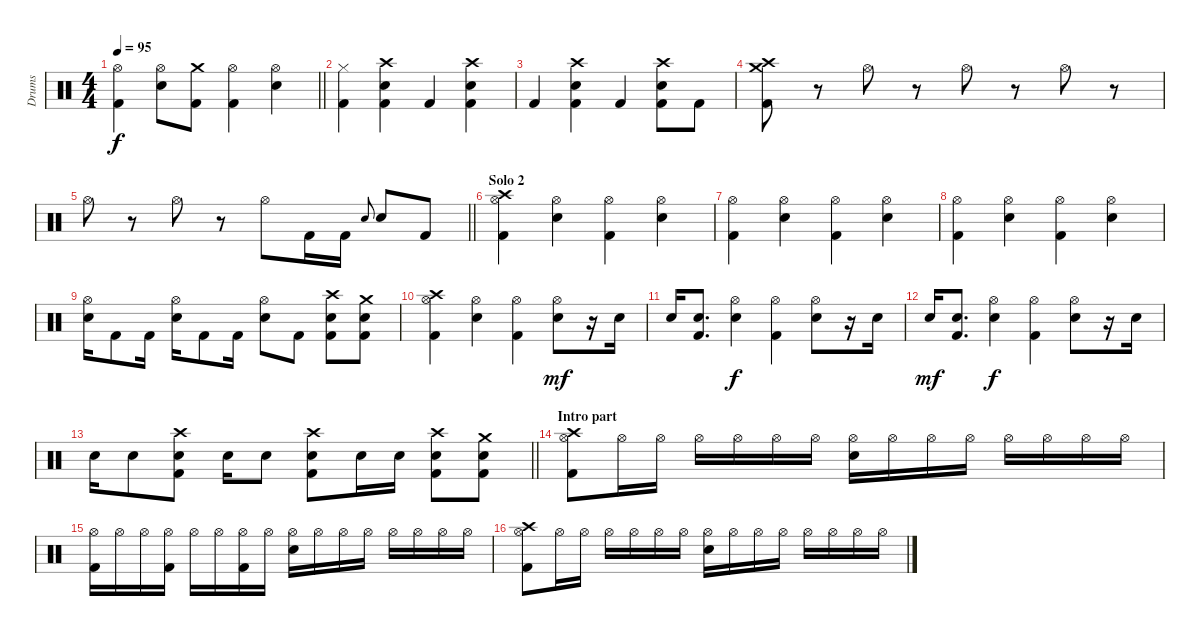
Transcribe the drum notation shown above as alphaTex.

\track ("Drums" "Drums") {instrument percussion}
\staff {score}
\articulation defaults
\ts (4 4)
\tempo 95
\clef neutral
\barLineRight lightlight
\ks c
("Hi-Hat (open)" "Kick (hit) 2").4{dy f} ("Hi-Hat (open)" "Electric Snare (hit)").8 ("Crash medium (hit)" "Kick (hit) 2").8 ("Hi-Hat (open)" "Kick (hit) 2").4 ("Hi-Hat (open)" "Electric Snare (hit)").4 |
("Hi-Hat (closed)" "Kick (hit) 2").4 ("Crash high (hit)" "Electric Snare (hit)" "Kick (hit) 2").4 "Kick (hit) 2".4 ("Crash high (hit)" "Electric Snare (hit)" "Kick (hit) 2").4 |
"Kick (hit) 2".4 ("Crash high (hit)" "Electric Snare (hit)" "Kick (hit) 2").4 "Kick (hit) 2".4 ("Crash high (hit)" "Electric Snare (hit)" "Kick (hit) 2").8 "Kick (hit) 2".8 |
("Crash high (hit)" "Crash medium (hit)" "Kick (hit) 2").8 r.8 "Hi-Hat (open)".8 r.8 "Hi-Hat (open)".8 r.8 "Hi-Hat (open)".8 r.8 |
\barLineRight lightlight "Hi-Hat (open)".8
r.8 "Hi-Hat (open)".8 r.8 "Hi-Hat (open)".8 "Kick (hit) 2".16 "Kick (hit) 2".16 "Electric Snare (hit)".8{gr onbeat} "Electric Snare (hit)".8 "Kick (hit) 2".8 |
\section ("" "Solo 2")
("Crash high (hit)" "Hi-Hat (open)" "Kick (hit) 2").4 ("Hi-Hat (open)" "Electric Snare (hit)").4 ("Hi-Hat (open)" "Kick (hit) 2").4 ("Hi-Hat (open)" "Electric Snare (hit)").4 |
("Hi-Hat (open)" "Kick (hit) 2").4 ("Hi-Hat (open)" "Electric Snare (hit)").4 ("Hi-Hat (open)" "Kick (hit) 2").4 ("Hi-Hat (open)" "Electric Snare (hit)").4 |
("Hi-Hat (open)" "Kick (hit) 2").4 ("Hi-Hat (open)" "Electric Snare (hit)").4 ("Hi-Hat (open)" "Kick (hit) 2").4 ("Hi-Hat (open)" "Electric Snare (hit)").4 |
("Hi-Hat (open)" "Electric Snare (hit)").16 "Kick (hit) 2".8 "Kick (hit) 2".16 ("Hi-Hat (open)" "Electric Snare (hit)").16 "Kick (hit) 2".8 "Kick (hit) 2".16 ("Hi-Hat (open)" "Electric Snare (hit)").8 "Kick (hit) 2".8 ("Crash high (hit)" "Electric Snare (hit)" "Kick (hit) 2").8 ("Crash medium (hit)" "Electric Snare (hit)" "Kick (hit) 2").8 |
("Crash high (hit)" "Hi-Hat (open)" "Kick (hit) 2").4 ("Hi-Hat (open)" "Electric Snare (hit)").4 ("Hi-Hat (open)" "Kick (hit) 2").4 ("Hi-Hat (open)" "Electric Snare (hit)").8{dy mf} r.16 "Electric Snare (hit)".16 |
"Electric Snare (hit)".16 ("Electric Snare (hit)" "Kick (hit) 2").8{d} ("Hi-Hat (open)" "Electric Snare (hit)").4{dy f} ("Hi-Hat (open)" "Kick (hit) 2").4 ("Hi-Hat (open)" "Electric Snare (hit)").8 r.16 "Electric Snare (hit)".16 |
"Electric Snare (hit)".16{dy mf} ("Electric Snare (hit)" "Kick (hit) 2").8{d} ("Hi-Hat (open)" "Electric Snare (hit)").4{dy f} ("Hi-Hat (open)" "Kick (hit) 2").4 ("Hi-Hat (open)" "Electric Snare (hit)").8 r.16 "Electric Snare (hit)".16 |
\barLineRight lightlight "Electric Snare (hit)".16 "Electric Snare (hit)".8
("Crash high (hit)" "Electric Snare (hit)" "Kick (hit) 2").8 "Electric Snare (hit)".16 "Electric Snare (hit)".8 ("Crash high (hit)" "Electric Snare (hit)" "Kick (hit) 2").8 "Electric Snare (hit)".16 "Electric Snare (hit)".16 ("Crash high (hit)" "Electric Snare (hit)" "Kick (hit) 2").8 ("Crash medium (hit)" "Electric Snare (hit)" "Kick (hit) 2").8 |
\section ("" "Intro part")
("Crash high (hit)" "Hi-Hat (open)" "Kick (hit) 2").8 "Hi-Hat (open)".16 "Hi-Hat (open)".16 "Hi-Hat (open)".16 "Hi-Hat (open)".16 "Hi-Hat (open)".16 "Hi-Hat (open)".16 ("Hi-Hat (open)" "Electric Snare (hit)").16 "Hi-Hat (open)".16 "Hi-Hat (open)".16 "Hi-Hat (open)".16 "Hi-Hat (open)".16 "Hi-Hat (open)".16 "Hi-Hat (open)".16 "Hi-Hat (open)".16 |
("Hi-Hat (open)" "Kick (hit) 2").16 "Hi-Hat (open)".16 "Hi-Hat (open)".16 ("Hi-Hat (open)" "Kick (hit) 2").16 "Hi-Hat (open)".16 "Hi-Hat (open)".16 ("Hi-Hat (open)" "Kick (hit) 2").16 "Hi-Hat (open)".16 ("Hi-Hat (open)" "Electric Snare (hit)").16 "Hi-Hat (open)".16 "Hi-Hat (open)".16 "Hi-Hat (open)".16 "Hi-Hat (open)".16 "Hi-Hat (open)".16 "Hi-Hat (open)".16 "Hi-Hat (open)".16 |
("Crash high (hit)" "Hi-Hat (open)" "Kick (hit) 2").8 "Hi-Hat (open)".16 "Hi-Hat (open)".16 "Hi-Hat (open)".16 "Hi-Hat (open)".16 "Hi-Hat (open)".16 "Hi-Hat (open)".16 ("Hi-Hat (open)" "Electric Snare (hit)").16 "Hi-Hat (open)".16 "Hi-Hat (open)".16 "Hi-Hat (open)".16 "Hi-Hat (open)".16 "Hi-Hat (open)".16 "Hi-Hat (open)".16 "Hi-Hat (open)".16
